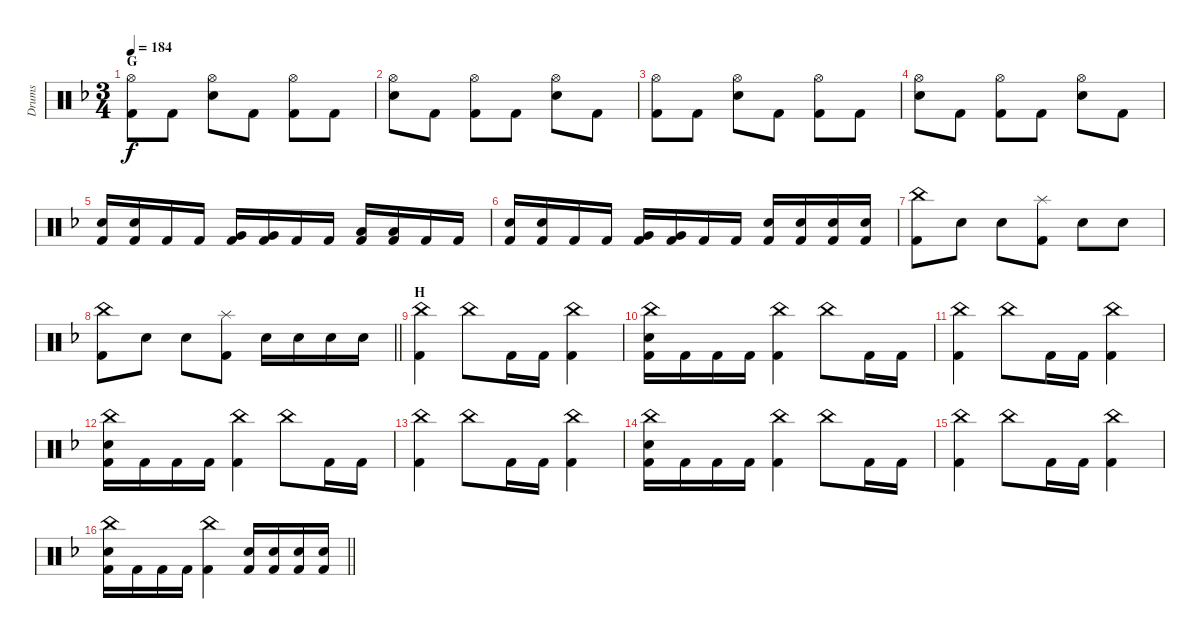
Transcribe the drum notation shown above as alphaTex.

\track ("Drums" "Drums") {instrument percussion}
\staff {score}
\articulation defaults
\ts (3 4)
\section ("" "G")
\tempo 184
\clef neutral
\ks f
("Hi-Hat (open)" "Kick (hit) 2").8{dy f} "Kick (hit) 2".8 ("Hi-Hat (open)" "Electric Snare (hit)").8 "Kick (hit) 2".8 ("Hi-Hat (open)" "Kick (hit) 2").8 "Kick (hit) 2".8 |
("Hi-Hat (open)" "Electric Snare (hit)").8 "Kick (hit) 2".8 ("Hi-Hat (open)" "Kick (hit) 2").8 "Kick (hit) 2".8 ("Hi-Hat (open)" "Electric Snare (hit)").8 "Kick (hit) 2".8 |
("Hi-Hat (open)" "Kick (hit) 2").8 "Kick (hit) 2".8 ("Hi-Hat (open)" "Electric Snare (hit)").8 "Kick (hit) 2".8 ("Hi-Hat (open)" "Kick (hit) 2").8 "Kick (hit) 2".8 |
("Hi-Hat (open)" "Electric Snare (hit)").8 "Kick (hit) 2".8 ("Hi-Hat (open)" "Kick (hit) 2").8 "Kick (hit) 2".8 ("Hi-Hat (open)" "Electric Snare (hit)").8 "Kick (hit) 2".8 |
("Electric Snare (hit)" "Kick (hit) 2").16 ("Electric Snare (hit)" "Kick (hit) 2").16 "Kick (hit) 2".16 "Kick (hit) 2".16 ("Very Low Tom (hit)" "Kick (hit) 2").16 ("Very Low Tom (hit)" "Kick (hit) 2").16 "Kick (hit) 2".16 "Kick (hit) 2".16 ("Low Floor Tom (hit)" "Kick (hit) 2").16 ("Low Floor Tom (hit)" "Kick (hit) 2").16 "Kick (hit) 2".16 "Kick (hit) 2".16 |
("Electric Snare (hit)" "Kick (hit) 2").16 ("Electric Snare (hit)" "Kick (hit) 2").16 "Kick (hit) 2".16 "Kick (hit) 2".16 ("Very Low Tom (hit)" "Kick (hit) 2").16 ("Very Low Tom (hit)" "Kick (hit) 2").16 "Kick (hit) 2".16 "Kick (hit) 2".16 ("Electric Snare (hit)" "Kick (hit) 2").16 ("Electric Snare (hit)" "Kick (hit) 2").16 ("Electric Snare (hit)" "Kick (hit) 2").16 ("Electric Snare (hit)" "Kick (hit) 2").16 |
("China (hit)" "Kick (hit) 2").8 "Electric Snare (hit)".8 "Electric Snare (hit)".8 ("Splash (hit)" "Kick (hit) 2").8 "Electric Snare (hit)".8 "Electric Snare (hit)".8 |
\barLineRight lightlight
("China (hit)" "Kick (hit) 2").8 "Electric Snare (hit)".8 "Electric Snare (hit)".8 ("Splash (hit)" "Kick (hit) 2").8 "Electric Snare (hit)".16 "Electric Snare (hit)".16 "Electric Snare (hit)".16 "Electric Snare (hit)".16 |
\section ("" "H")
("China (hit)" "Kick (hit) 2").4 "China (hit)".8 "Kick (hit) 2".16 "Kick (hit) 2".16 ("China (hit)" "Kick (hit) 2").4 |
("China (hit)" "Electric Snare (hit)" "Kick (hit) 2").16 "Kick (hit) 2".16 "Kick (hit) 2".16 "Kick (hit) 2".16 ("China (hit)" "Kick (hit) 2").4 "China (hit)".8 "Kick (hit) 2".16 "Kick (hit) 2".16 |
("China (hit)" "Kick (hit) 2").4 "China (hit)".8 "Kick (hit) 2".16 "Kick (hit) 2".16 ("China (hit)" "Kick (hit) 2").4 |
("China (hit)" "Electric Snare (hit)" "Kick (hit) 2").16 "Kick (hit) 2".16 "Kick (hit) 2".16 "Kick (hit) 2".16 ("China (hit)" "Kick (hit) 2").4 "China (hit)".8 "Kick (hit) 2".16 "Kick (hit) 2".16 |
("China (hit)" "Kick (hit) 2").4 "China (hit)".8 "Kick (hit) 2".16 "Kick (hit) 2".16 ("China (hit)" "Kick (hit) 2").4 |
("China (hit)" "Electric Snare (hit)" "Kick (hit) 2").16 "Kick (hit) 2".16 "Kick (hit) 2".16 "Kick (hit) 2".16 ("China (hit)" "Kick (hit) 2").4 "China (hit)".8 "Kick (hit) 2".16 "Kick (hit) 2".16 |
("China (hit)" "Kick (hit) 2").4 "China (hit)".8 "Kick (hit) 2".16 "Kick (hit) 2".16 ("China (hit)" "Kick (hit) 2").4 |
\barLineRight lightlight
("China (hit)" "Electric Snare (hit)" "Kick (hit) 2").16 "Kick (hit) 2".16 "Kick (hit) 2".16 "Kick (hit) 2".16 ("China (hit)" "Kick (hit) 2").4 ("Electric Snare (hit)" "Kick (hit) 2").16 ("Electric Snare (hit)" "Kick (hit) 2").16 ("Electric Snare (hit)" "Kick (hit) 2").16 ("Electric Snare (hit)" "Kick (hit) 2").16
